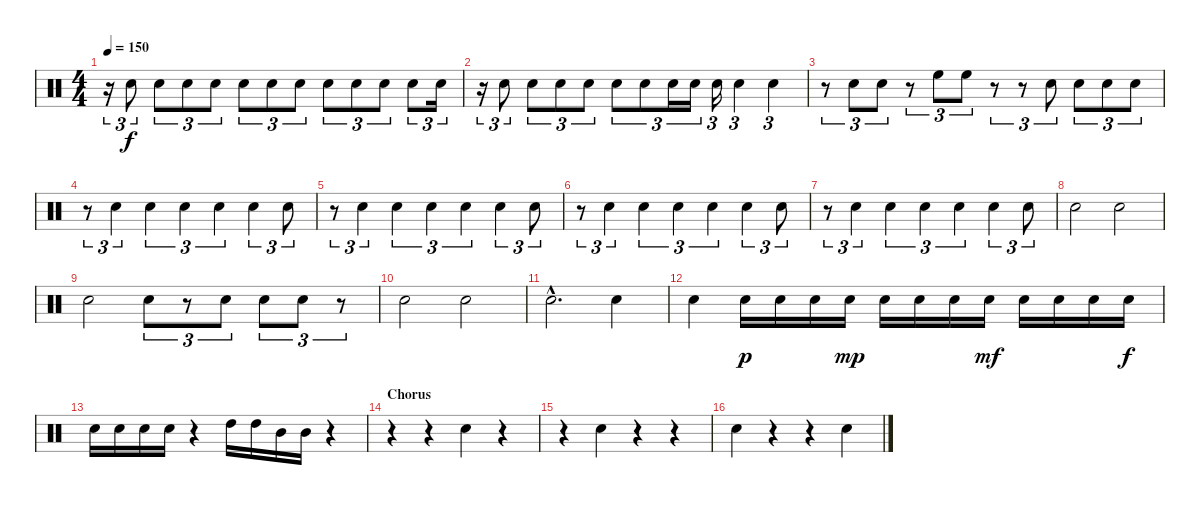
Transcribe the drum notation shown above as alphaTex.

\track "" {instrument percussion}
\staff {score}
\articulation defaults
\ts (4 4)
\tempo 150
\clef neutral
\ks c
r.16{tu (3 2) dy f} "Electric Snare (hit)".8{tu (3 2)} "Electric Snare (hit)".8{tu (3 2)} "Electric Snare (hit)".8{tu (3 2)} "Electric Snare (hit)".8{tu (3 2)} "Electric Snare (hit)".8{tu (3 2)} "Electric Snare (hit)".8{tu (3 2)} "Electric Snare (hit)".8{tu (3 2)} "Electric Snare (hit)".8{tu (3 2)} "Electric Snare (hit)".8{tu (3 2)} "Electric Snare (hit)".8{tu (3 2)} "Electric Snare (hit)".8{tu (3 2)} "Electric Snare (hit)".16{tu (3 2)} |
r.16{tu (3 2)} "Electric Snare (hit)".8{tu (3 2)} "Electric Snare (hit)".8{tu (3 2)} "Electric Snare (hit)".8{tu (3 2)} "Electric Snare (hit)".8{tu (3 2)} "Electric Snare (hit)".8{tu (3 2)} "Electric Snare (hit)".8{tu (3 2)} "Electric Snare (hit)".16{tu (3 2)} "Electric Snare (hit)".16{tu (3 2)} "Electric Snare (hit)".16{tu (3 2)} "Electric Snare (hit)".4{tu (3 2)} "Electric Snare (hit)".4{tu (3 2)} |
r.8{tu (3 2)} "Electric Snare (hit)".8{tu (3 2)} "Electric Snare (hit)".8{tu (3 2)} r.8{tu (3 2)} "High Floor Tom (hit)".8{tu (3 2)} "High Floor Tom (hit)".8{tu (3 2)} r.8{tu (3 2)} r.8{tu (3 2)} "Electric Snare (hit)".8{tu (3 2)} "Electric Snare (hit)".8{tu (3 2)} "Electric Snare (hit)".8{tu (3 2)} "Electric Snare (hit)".8{tu (3 2)} |
r.8{tu (3 2)} "Electric Snare (hit)".4{tu (3 2)} "Electric Snare (hit)".4{tu (3 2)} "Electric Snare (hit)".4{tu (3 2)} "Electric Snare (hit)".4{tu (3 2)} "Electric Snare (hit)".4{tu (3 2)} "Electric Snare (hit)".8{tu (3 2)} |
r.8{tu (3 2)} "Electric Snare (hit)".4{tu (3 2)} "Electric Snare (hit)".4{tu (3 2)} "Electric Snare (hit)".4{tu (3 2)} "Electric Snare (hit)".4{tu (3 2)} "Electric Snare (hit)".4{tu (3 2)} "Electric Snare (hit)".8{tu (3 2)} |
r.8{tu (3 2)} "Electric Snare (hit)".4{tu (3 2)} "Electric Snare (hit)".4{tu (3 2)} "Electric Snare (hit)".4{tu (3 2)} "Electric Snare (hit)".4{tu (3 2)} "Electric Snare (hit)".4{tu (3 2)} "Electric Snare (hit)".8{tu (3 2)} |
r.8{tu (3 2)} "Electric Snare (hit)".4{tu (3 2)} "Electric Snare (hit)".4{tu (3 2)} "Electric Snare (hit)".4{tu (3 2)} "Electric Snare (hit)".4{tu (3 2)} "Electric Snare (hit)".4{tu (3 2)} "Electric Snare (hit)".8{tu (3 2)} |
"Electric Snare (hit)".2 "Electric Snare (hit)".2 |
"Electric Snare (hit)".2 "Electric Snare (hit)".8{tu (3 2)} r.8{tu (3 2)} "Electric Snare (hit)".8{tu (3 2)} "Electric Snare (hit)".8{tu (3 2)} "Electric Snare (hit)".8{tu (3 2)} r.8{tu (3 2)} |
"Electric Snare (hit)".2 "Electric Snare (hit)".2 |
"Electric Snare (hit)"{hac}.2{d} "Electric Snare (hit)".4 |
"Electric Snare (hit)".4 "Electric Snare (hit)".16{dy p} "Electric Snare (hit)".16 "Electric Snare (hit)".16 "Electric Snare (hit)".16{dy mp} "Electric Snare (hit)".16 "Electric Snare (hit)".16 "Electric Snare (hit)".16 "Electric Snare (hit)".16{dy mf} "Electric Snare (hit)".16 "Electric Snare (hit)".16 "Electric Snare (hit)".16 "Electric Snare (hit)".16{dy f} |
"Electric Snare (hit)".16 "Electric Snare (hit)".16 "Electric Snare (hit)".16 "Electric Snare (hit)".16 r.4 "High Tom (hit)".16 "High Tom (hit)".16 "Mid Tom (hit)".16 "Mid Tom (hit)".16 r.4 |
\section ("" "Chorus")
r.4 r.4 "Electric Snare (hit)".4 r.4 |
r.4 "Electric Snare (hit)".4 r.4 r.4 |
"Electric Snare (hit)".4 r.4 r.4 "Electric Snare (hit)".4
